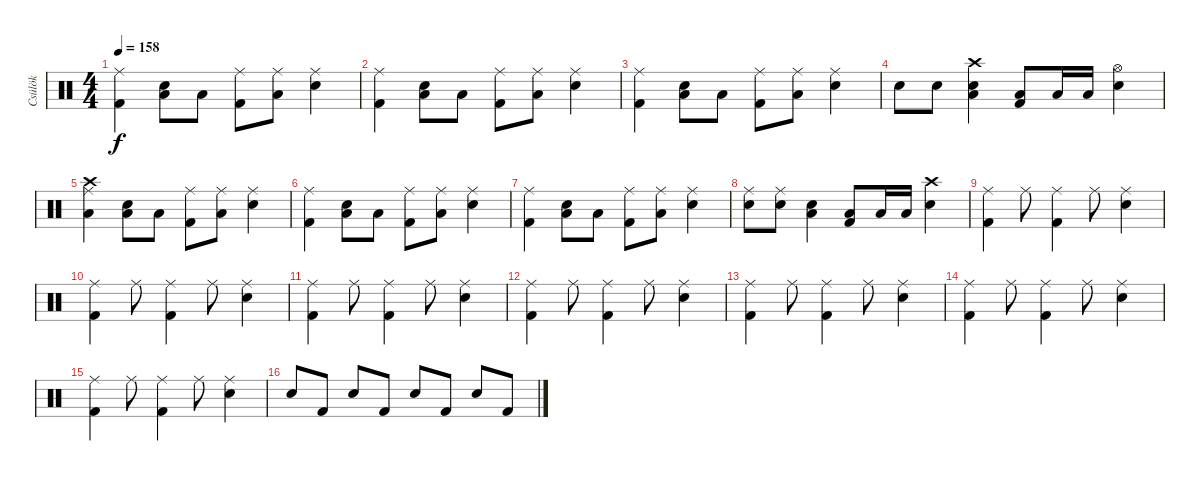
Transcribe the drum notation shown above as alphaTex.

\track ("Csülök" "Csülök") {instrument percussion}
\staff {score}
\articulation defaults
\ts (4 4)
\tempo 158
\clef neutral
\ks c
("Kick (hit) 2" "Ride (middle)").4{dy f} ("Snare (hit) 2" "Low Tom (hit)").8 "Low Tom (hit)".8 ("Kick (hit) 2" "Ride (middle)").8 ("Low Tom (hit)" "Ride (middle)").8 ("Snare (hit) 2" "Ride (middle)").4 |
("Kick (hit) 2" "Ride (middle)").4 ("Snare (hit) 2" "Low Tom (hit)").8 "Low Tom (hit)".8 ("Kick (hit) 2" "Ride (middle)").8 ("Low Tom (hit)" "Ride (middle)").8 ("Snare (hit) 2" "Ride (middle)").4 |
("Kick (hit) 2" "Ride (middle)").4 ("Snare (hit) 2" "Low Tom (hit)").8 "Low Tom (hit)".8 ("Kick (hit) 2" "Ride (middle)").8 ("Low Tom (hit)" "Ride (middle)").8 ("Snare (hit) 2" "Ride (middle)").4 |
"Snare (hit) 2".8 "Snare (hit) 2".8 ("Crash high (hit)" "Snare (hit) 2" "Low Tom (hit)").4 ("Kick (hit) 2" "Low Tom (hit)").8 "Low Tom (hit)".16 "Low Tom (hit)".16 ("Hi-Hat (open)" "Snare (hit) 2").4 |
("Crash high (hit)" "Low Tom (hit)" "Ride (middle)").4 ("Snare (hit) 2" "Low Tom (hit)").8 "Low Tom (hit)".8 ("Kick (hit) 2" "Ride (middle)").8 ("Low Tom (hit)" "Ride (middle)").8 ("Snare (hit) 2" "Ride (middle)").4 |
("Kick (hit) 2" "Ride (middle)").4 ("Snare (hit) 2" "Low Tom (hit)").8 "Low Tom (hit)".8 ("Kick (hit) 2" "Ride (middle)").8 ("Low Tom (hit)" "Ride (middle)").8 ("Snare (hit) 2" "Ride (middle)").4 |
("Kick (hit) 2" "Ride (middle)").4 ("Snare (hit) 2" "Low Tom (hit)").8 "Low Tom (hit)".8 ("Kick (hit) 2" "Ride (middle)").8 ("Low Tom (hit)" "Ride (middle)").8 ("Snare (hit) 2" "Ride (middle)").4 |
("Snare (hit) 2" "Ride (middle)").8 ("Snare (hit) 2" "Ride (middle)").8 ("Snare (hit) 2" "Low Tom (hit)").4 ("Kick (hit) 2" "Low Tom (hit)").8 "Low Tom (hit)".16 "Low Tom (hit)".16 ("Crash high (hit)" "Snare (hit) 2").4 |
("Kick (hit) 2" "Ride (middle)").4 "Ride (middle)".8 ("Kick (hit) 2" "Ride (middle)").4 "Ride (middle)".8 ("Snare (hit) 2" "Ride (middle)").4 |
("Kick (hit) 2" "Ride (middle)").4 "Ride (middle)".8 ("Kick (hit) 2" "Ride (middle)").4 "Ride (middle)".8 ("Snare (hit) 2" "Ride (middle)").4 |
("Kick (hit) 2" "Ride (middle)").4 "Ride (middle)".8 ("Kick (hit) 2" "Ride (middle)").4 "Ride (middle)".8 ("Snare (hit) 2" "Ride (middle)").4 |
("Kick (hit) 2" "Ride (middle)").4 "Ride (middle)".8 ("Kick (hit) 2" "Ride (middle)").4 "Ride (middle)".8 ("Snare (hit) 2" "Ride (middle)").4 |
("Kick (hit) 2" "Ride (middle)").4 "Ride (middle)".8 ("Kick (hit) 2" "Ride (middle)").4 "Ride (middle)".8 ("Snare (hit) 2" "Ride (middle)").4 |
("Kick (hit) 2" "Ride (middle)").4 "Ride (middle)".8 ("Kick (hit) 2" "Ride (middle)").4 "Ride (middle)".8 ("Snare (hit) 2" "Ride (middle)").4 |
("Kick (hit) 2" "Ride (middle)").4 "Ride (middle)".8 ("Kick (hit) 2" "Ride (middle)").4 "Ride (middle)".8 ("Snare (hit) 2" "Ride (middle)").4 |
"Snare (hit) 2".8 "Kick (hit) 2".8 "Snare (hit) 2".8 "Kick (hit) 2".8 "Snare (hit) 2".8 "Kick (hit) 2".8 "Snare (hit) 2".8 "Kick (hit) 2".8
